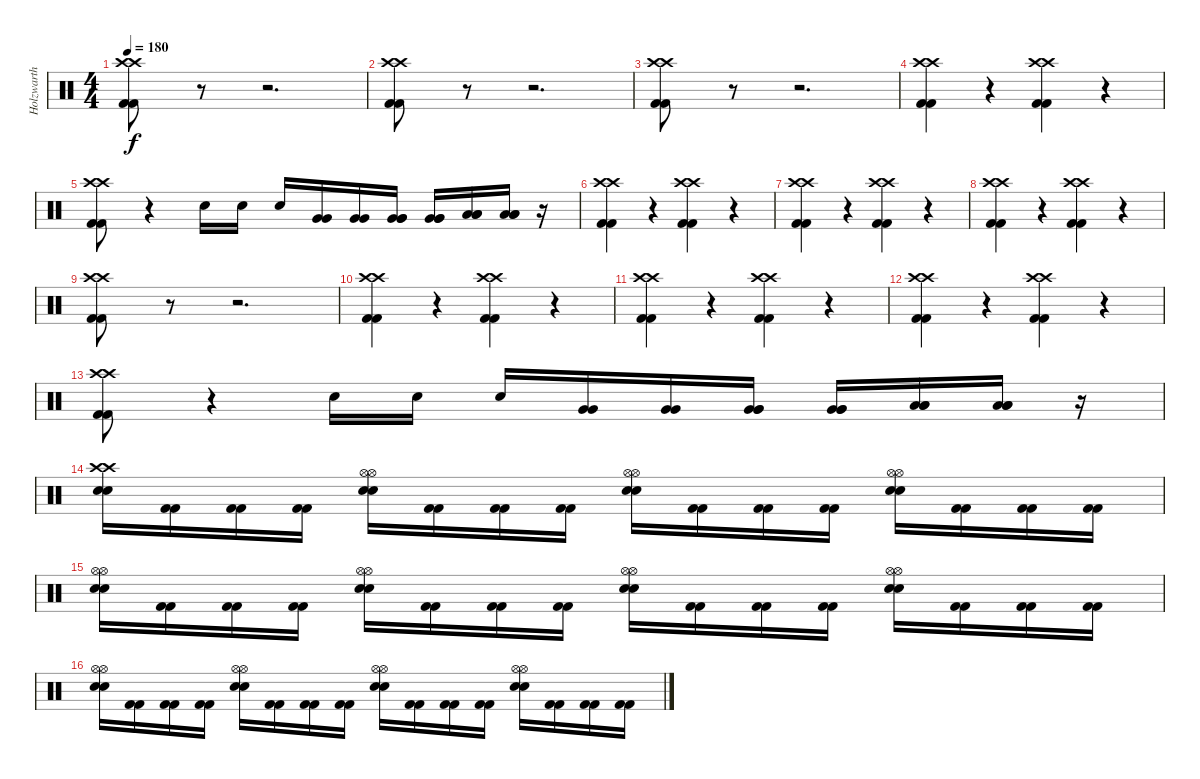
\track ("Holzwarth" "Holzwarth") {instrument percussion}
\staff {score}
\articulation defaults
\ts (4 4)
\tempo 180
\clef neutral
\ks c
("Kick (hit) 2" "Kick (hit) 2" "Crash high (hit)" "Crash high (hit)").8{dy f} r.8 r.2{d} |
("Kick (hit) 2" "Kick (hit) 2" "Crash high (hit)" "Crash high (hit)").8 r.8 r.2{d} |
("Kick (hit) 2" "Kick (hit) 2" "Crash high (hit)" "Crash high (hit)").8 r.8 r.2{d} |
("Kick (hit) 2" "Kick (hit) 2" "Crash high (hit)" "Crash high (hit)").4 r.4 ("Kick (hit) 2" "Kick (hit) 2" "Crash high (hit)" "Crash high (hit)").4 r.4 |
("Kick (hit) 2" "Kick (hit) 2" "Crash high (hit)" "Crash high (hit)").8 r.4 "Snare (hit) 2".16 "Snare (hit) 2".16 "Snare (hit) 2".16 ("Very Low Tom (hit)" "Very Low Tom (hit)").16 ("Very Low Tom (hit)" "Very Low Tom (hit)").16 ("Very Low Tom (hit)" "Very Low Tom (hit)" "Very Low Tom (hit)").16 ("Very Low Tom (hit)" "Very Low Tom (hit)" "Very Low Tom (hit)").16 ("Low Tom (hit)" "Low Tom (hit)" "Low Tom (hit)").16 ("Low Tom (hit)" "Low Tom (hit)" "Low Tom (hit)").16 r.16 |
("Kick (hit) 2" "Kick (hit) 2" "Crash high (hit)" "Crash high (hit)").4 r.4 ("Kick (hit) 2" "Kick (hit) 2" "Crash high (hit)" "Crash high (hit)").4 r.4 |
("Kick (hit) 2" "Kick (hit) 2" "Crash high (hit)" "Crash high (hit)").4 r.4 ("Kick (hit) 2" "Kick (hit) 2" "Crash high (hit)" "Crash high (hit)").4 r.4 |
("Kick (hit) 2" "Kick (hit) 2" "Crash high (hit)" "Crash high (hit)").4 r.4 ("Kick (hit) 2" "Kick (hit) 2" "Crash high (hit)" "Crash high (hit)").4 r.4 |
("Kick (hit) 2" "Kick (hit) 2" "Crash high (hit)" "Crash high (hit)").8 r.8 r.2{d} |
("Kick (hit) 2" "Kick (hit) 2" "Crash high (hit)" "Crash high (hit)").4 r.4 ("Kick (hit) 2" "Kick (hit) 2" "Crash high (hit)" "Crash high (hit)").4 r.4 |
("Kick (hit) 2" "Kick (hit) 2" "Crash high (hit)" "Crash high (hit)").4 r.4 ("Kick (hit) 2" "Kick (hit) 2" "Crash high (hit)" "Crash high (hit)").4 r.4 |
("Kick (hit) 2" "Kick (hit) 2" "Crash high (hit)" "Crash high (hit)").4 r.4 ("Kick (hit) 2" "Kick (hit) 2" "Crash high (hit)" "Crash high (hit)").4 r.4 |
("Kick (hit) 2" "Kick (hit) 2" "Crash high (hit)" "Crash high (hit)").8 r.4 "Snare (hit) 2".16 "Snare (hit) 2".16 "Snare (hit) 2".16 ("Very Low Tom (hit)" "Very Low Tom (hit)").16 ("Very Low Tom (hit)" "Very Low Tom (hit)").16 ("Very Low Tom (hit)" "Very Low Tom (hit)" "Very Low Tom (hit)").16 ("Very Low Tom (hit)" "Very Low Tom (hit)" "Very Low Tom (hit)").16 ("Low Tom (hit)" "Low Tom (hit)" "Low Tom (hit)").16 ("Low Tom (hit)" "Low Tom (hit)" "Low Tom (hit)").16 r.16 |
("Snare (hit) 2" "Snare (hit) 2" "Crash high (hit)" "Crash high (hit)").16 ("Kick (hit) 2" "Kick (hit) 2").16 ("Kick (hit) 2" "Kick (hit) 2").16 ("Kick (hit) 2" "Kick (hit) 2").16 ("Snare (hit) 2" "Snare (hit) 2" "Hi-Hat (open)" "Hi-Hat (open)").16 ("Kick (hit) 2" "Kick (hit) 2").16 ("Kick (hit) 2" "Kick (hit) 2").16 ("Kick (hit) 2" "Kick (hit) 2").16 ("Snare (hit) 2" "Snare (hit) 2" "Hi-Hat (open)" "Hi-Hat (open)").16 ("Kick (hit) 2" "Kick (hit) 2").16 ("Kick (hit) 2" "Kick (hit) 2").16 ("Kick (hit) 2" "Kick (hit) 2").16 ("Snare (hit) 2" "Snare (hit) 2" "Hi-Hat (open)" "Hi-Hat (open)").16 ("Kick (hit) 2" "Kick (hit) 2").16 ("Kick (hit) 2" "Kick (hit) 2").16 ("Kick (hit) 2" "Kick (hit) 2").16 |
("Snare (hit) 2" "Snare (hit) 2" "Hi-Hat (open)" "Hi-Hat (open)").16 ("Kick (hit) 2" "Kick (hit) 2").16 ("Kick (hit) 2" "Kick (hit) 2").16 ("Kick (hit) 2" "Kick (hit) 2").16 ("Snare (hit) 2" "Snare (hit) 2" "Hi-Hat (open)" "Hi-Hat (open)").16 ("Kick (hit) 2" "Kick (hit) 2").16 ("Kick (hit) 2" "Kick (hit) 2").16 ("Kick (hit) 2" "Kick (hit) 2").16 ("Snare (hit) 2" "Snare (hit) 2" "Hi-Hat (open)" "Hi-Hat (open)").16 ("Kick (hit) 2" "Kick (hit) 2").16 ("Kick (hit) 2" "Kick (hit) 2").16 ("Kick (hit) 2" "Kick (hit) 2").16 ("Snare (hit) 2" "Snare (hit) 2" "Hi-Hat (open)" "Hi-Hat (open)").16 ("Kick (hit) 2" "Kick (hit) 2").16 ("Kick (hit) 2" "Kick (hit) 2").16 ("Kick (hit) 2" "Kick (hit) 2").16 |
("Snare (hit) 2" "Snare (hit) 2" "Hi-Hat (open)" "Hi-Hat (open)").16 ("Kick (hit) 2" "Kick (hit) 2").16 ("Kick (hit) 2" "Kick (hit) 2").16 ("Kick (hit) 2" "Kick (hit) 2").16 ("Snare (hit) 2" "Snare (hit) 2" "Hi-Hat (open)" "Hi-Hat (open)").16 ("Kick (hit) 2" "Kick (hit) 2").16 ("Kick (hit) 2" "Kick (hit) 2").16 ("Kick (hit) 2" "Kick (hit) 2").16 ("Snare (hit) 2" "Snare (hit) 2" "Hi-Hat (open)" "Hi-Hat (open)").16 ("Kick (hit) 2" "Kick (hit) 2").16 ("Kick (hit) 2" "Kick (hit) 2").16 ("Kick (hit) 2" "Kick (hit) 2").16 ("Snare (hit) 2" "Snare (hit) 2" "Hi-Hat (open)" "Hi-Hat (open)").16 ("Kick (hit) 2" "Kick (hit) 2").16 ("Kick (hit) 2" "Kick (hit) 2").16 ("Kick (hit) 2" "Kick (hit) 2").16
